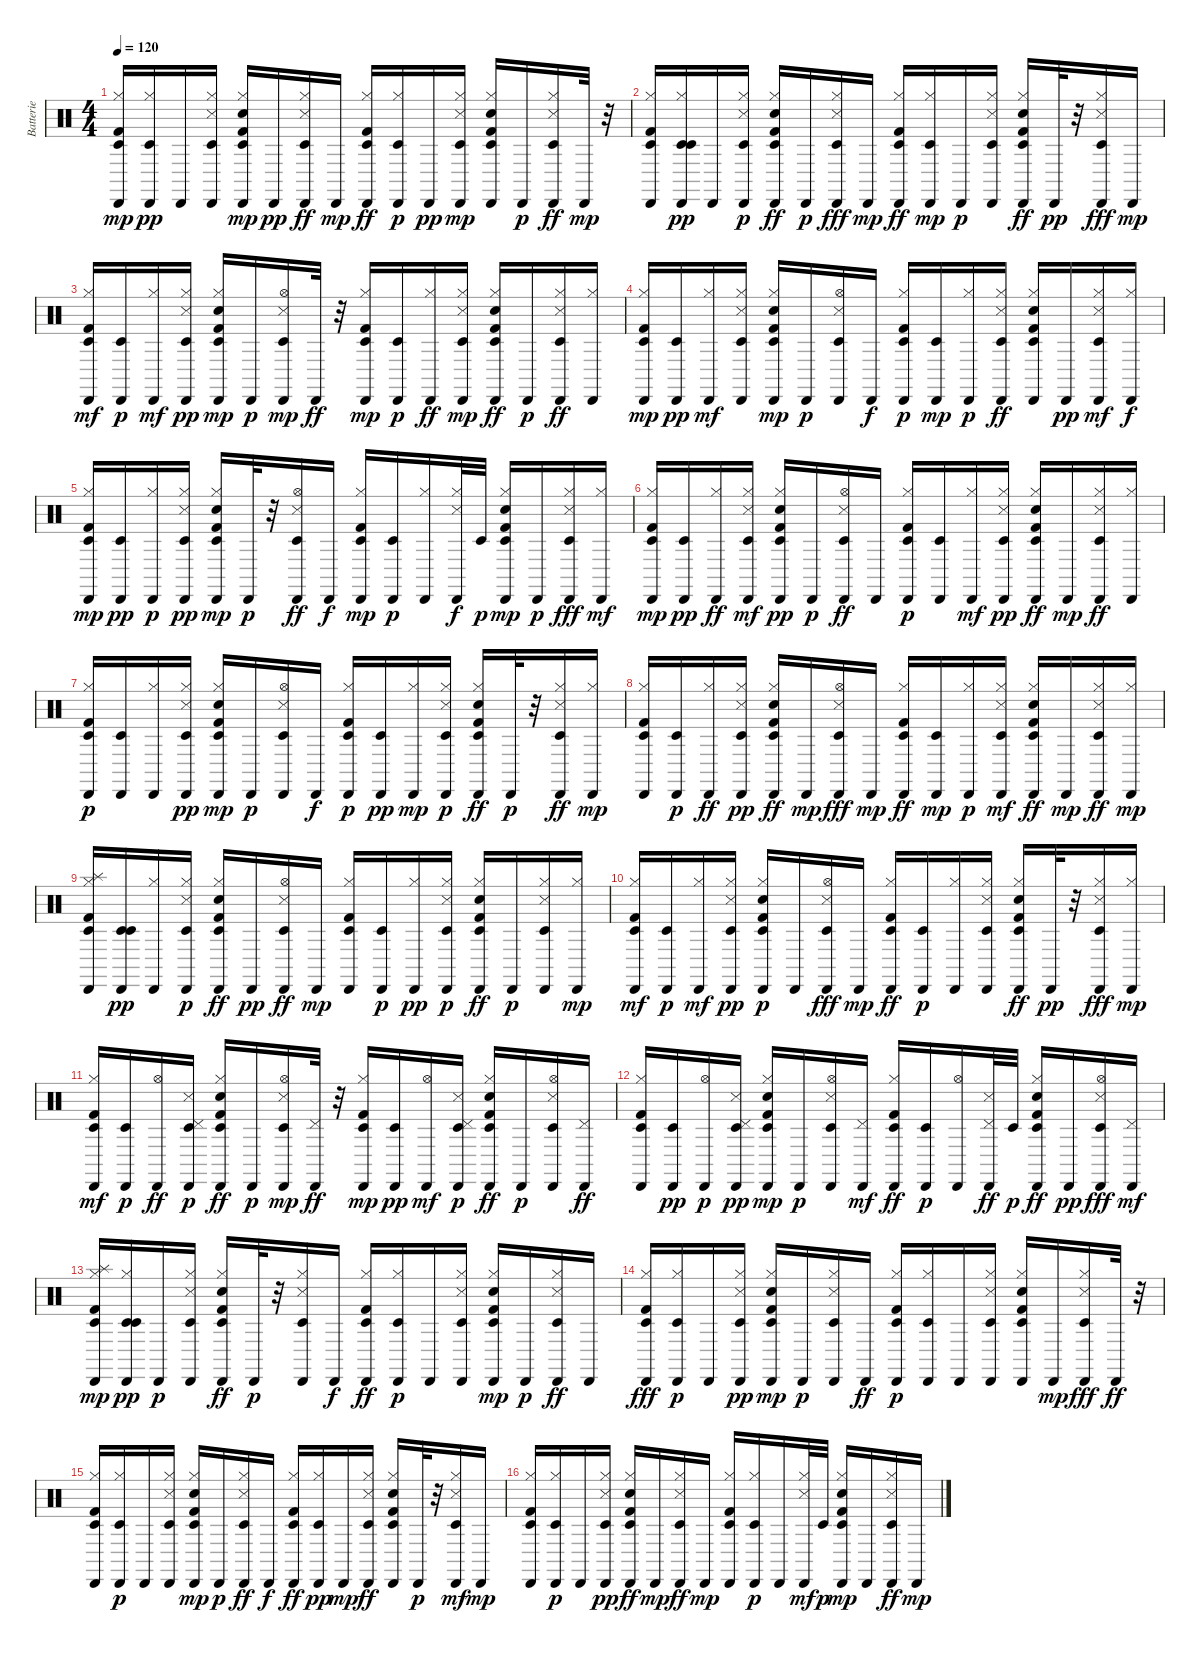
\track ("Batterie" "Batterie") {instrument percussion}
\staff {score}
\articulation defaults
\ts (4 4)
\tempo 120
\clef neutral
\ks c
("Kick (hit) 2" "Cabasa (hit)" "Hi-Hat (closed)" "Timbale low (hit)").16{dy mp} ("Hi-Hat (closed)" "Timbale low (hit)" "Cabasa (hit)").16{dy pp} "Cabasa (hit)".16 ("Snare (side stick) 3" "Cabasa (hit)" "Hi-Hat (closed)" "Timbale low (hit)").16 ("Timbale low (hit)" "Kick (hit) 2" "Hi-Hat (closed)" "Cabasa (hit)" "Hand Clap (hit)").16{dy mp} "Cabasa (hit)".16{dy pp} ("Cabasa (hit)" "Timbale low (hit)" "Snare (side stick) 3" "Hi-Hat (closed)").16{dy ff} "Cabasa (hit)".16{dy mp} ("Timbale low (hit)" "Kick (hit) 2" "Cabasa (hit)" "Hi-Hat (closed)").16{dy ff} ("Hi-Hat (closed)" "Timbale low (hit)" "Cabasa (hit)").16{dy p} "Cabasa (hit)".16{dy pp} ("Snare (side stick) 3" "Timbale low (hit)" "Cabasa (hit)" "Hi-Hat (closed)").16{dy mp} ("Timbale low (hit)" "Kick (hit) 2" "Hand Clap (hit)" "Cabasa (hit)" "Hi-Hat (closed)").16 "Cabasa (hit)".16{dy p} ("Cabasa (hit)" "Hi-Hat (closed)" "Snare (side stick) 3" "Timbale low (hit)").16{dy ff} "Cabasa (hit)".32{dy mp} r.32 |
("Kick (hit) 2" "Cabasa (hit)" "Hi-Hat (closed)" "Timbale low (hit)").16 ("Hi-Hat (closed)" "Cabasa (hit)" "Timbale low (hit)" "Timbale low (hit)").16{dy pp} "Cabasa (hit)".16 ("Cabasa (hit)" "Snare (side stick) 3" "Hi-Hat (closed)" "Timbale low (hit)").16{dy p} ("Timbale low (hit)" "Hi-Hat (closed)" "Kick (hit) 2" "Cabasa (hit)" "Hand Clap (hit)").16{dy ff} "Cabasa (hit)".16{dy p} ("Timbale low (hit)" "Cabasa (hit)" "Hi-Hat (closed)" "Snare (side stick) 3").16{dy fff} "Cabasa (hit)".16{dy mp} ("Timbale low (hit)" "Kick (hit) 2" "Cabasa (hit)" "Hi-Hat (closed)").16{dy ff} ("Hi-Hat (closed)" "Timbale low (hit)" "Cabasa (hit)").16{dy mp} "Cabasa (hit)".16{dy p} ("Hi-Hat (closed)" "Cabasa (hit)" "Snare (side stick) 3" "Timbale low (hit)").16 ("Hi-Hat (closed)" "Timbale low (hit)" "Kick (hit) 2" "Cabasa (hit)" "Hand Clap (hit)").16{dy ff} "Cabasa (hit)".32{dy pp} r.32 ("Cabasa (hit)" "Hi-Hat (closed)" "Timbale low (hit)" "Snare (side stick) 3").16{dy fff} "Cabasa (hit)".16{dy mp} |
("Hi-Hat (closed)" "Kick (hit) 2" "Cabasa (hit)" "Timbale low (hit)").16{dy mf} ("Cabasa (hit)" "Timbale low (hit)").16{dy p} ("Cabasa (hit)" "Hi-Hat (closed)").16{dy mf} ("Cabasa (hit)" "Snare (side stick) 3" "Hi-Hat (closed)" "Timbale low (hit)").16{dy pp} ("Hand Clap (hit)" "Cabasa (hit)" "Kick (hit) 2" "Hi-Hat (closed)" "Timbale low (hit)").16{dy mp} "Cabasa (hit)".16{dy p} ("Cabasa (hit)" "Hi-Hat (open)" "Snare (side stick) 3" "Timbale low (hit)").16{dy mp} "Cabasa (hit)".32{dy ff} r.32 ("Hi-Hat (closed)" "Cabasa (hit)" "Kick (hit) 2" "Timbale low (hit)").16{dy mp} ("Cabasa (hit)" "Timbale low (hit)").16{dy p} ("Cabasa (hit)" "Hi-Hat (closed)").16{dy ff} ("Snare (side stick) 3" "Cabasa (hit)" "Timbale low (hit)" "Hi-Hat (closed)").16{dy mp} ("Timbale low (hit)" "Cabasa (hit)" "Hand Clap (hit)" "Hi-Hat (closed)" "Kick (hit) 2").16{dy ff} "Cabasa (hit)".16{dy p} ("Timbale low (hit)" "Cabasa (hit)" "Snare (side stick) 3" "Hi-Hat (closed)").16{dy ff} ("Cabasa (hit)" "Hi-Hat (closed)").16 |
("Timbale low (hit)" "Cabasa (hit)" "Kick (hit) 2" "Hi-Hat (closed)").16{dy mp} ("Timbale low (hit)" "Cabasa (hit)").16{dy pp} ("Cabasa (hit)" "Hi-Hat (closed)").16{dy mf} ("Cabasa (hit)" "Snare (side stick) 3" "Timbale low (hit)" "Hi-Hat (closed)").16 ("Timbale low (hit)" "Kick (hit) 2" "Cabasa (hit)" "Hand Clap (hit)" "Hi-Hat (closed)").16{dy mp} "Cabasa (hit)".16{dy p} ("Hi-Hat (open)" "Timbale low (hit)" "Cabasa (hit)" "Snare (side stick) 3").16 "Cabasa (hit)".16{dy f} ("Timbale low (hit)" "Kick (hit) 2" "Hi-Hat (closed)" "Cabasa (hit)").16{dy p} ("Timbale low (hit)" "Cabasa (hit)").16{dy mp} ("Hi-Hat (closed)" "Cabasa (hit)").16{dy p} ("Cabasa (hit)" "Timbale low (hit)" "Hi-Hat (closed)" "Snare (side stick) 3").16{dy ff} ("Timbale low (hit)" "Hi-Hat (closed)" "Cabasa (hit)" "Kick (hit) 2" "Hand Clap (hit)").16 "Cabasa (hit)".16{dy pp} ("Cabasa (hit)" "Timbale low (hit)" "Snare (side stick) 3" "Hi-Hat (closed)").16{dy mf} ("Cabasa (hit)" "Hi-Hat (closed)").16{dy f} |
("Kick (hit) 2" "Cabasa (hit)" "Hi-Hat (closed)" "Timbale low (hit)").16{dy mp} ("Timbale low (hit)" "Cabasa (hit)").16{dy pp} ("Cabasa (hit)" "Hi-Hat (closed)").16{dy p} ("Cabasa (hit)" "Snare (side stick) 3" "Hi-Hat (closed)" "Timbale low (hit)").16{dy pp} ("Kick (hit) 2" "Timbale low (hit)" "Cabasa (hit)" "Hi-Hat (closed)" "Hand Clap (hit)").16{dy mp} "Cabasa (hit)".32{dy p} r.32 ("Cabasa (hit)" "Snare (side stick) 3" "Timbale low (hit)" "Hi-Hat (open)").16{dy ff} "Cabasa (hit)".16{dy f} ("Kick (hit) 2" "Cabasa (hit)" "Timbale low (hit)" "Hi-Hat (closed)").16{dy mp} ("Cabasa (hit)" "Timbale low (hit)").16{dy p} ("Hi-Hat (closed)" "Cabasa (hit)").16 ("Hi-Hat (closed)" "Cabasa (hit)" "Snare (side stick) 3").32{dy f} "Timbale low (hit)".32{dy p} ("Hi-Hat (closed)" "Kick (hit) 2" "Hand Clap (hit)" "Timbale low (hit)" "Cabasa (hit)").16{dy mp} "Cabasa (hit)".16{dy p} ("Cabasa (hit)" "Hi-Hat (closed)" "Snare (side stick) 3" "Timbale low (hit)").16{dy fff} ("Cabasa (hit)" "Hi-Hat (closed)").16{dy mf} |
("Cabasa (hit)" "Kick (hit) 2" "Hi-Hat (closed)" "Timbale low (hit)").16{dy mp} ("Cabasa (hit)" "Timbale low (hit)").16{dy pp} ("Cabasa (hit)" "Hi-Hat (closed)").16{dy ff} ("Cabasa (hit)" "Timbale low (hit)" "Snare (side stick) 3" "Hi-Hat (closed)").16{dy mf} ("Timbale low (hit)" "Cabasa (hit)" "Kick (hit) 2" "Hand Clap (hit)" "Hi-Hat (closed)").16{dy pp} "Cabasa (hit)".16{dy p} ("Hi-Hat (open)" "Cabasa (hit)" "Snare (side stick) 3" "Timbale low (hit)").16{dy ff} "Cabasa (hit)".16 ("Timbale low (hit)" "Kick (hit) 2" "Cabasa (hit)" "Hi-Hat (closed)").16{dy p} ("Timbale low (hit)" "Cabasa (hit)").16 ("Cabasa (hit)" "Hi-Hat (closed)").16{dy mf} ("Cabasa (hit)" "Hi-Hat (closed)" "Timbale low (hit)" "Snare (side stick) 3").16{dy pp} ("Timbale low (hit)" "Hi-Hat (closed)" "Cabasa (hit)" "Kick (hit) 2" "Hand Clap (hit)").16{dy ff} "Cabasa (hit)".16{dy mp} ("Cabasa (hit)" "Hi-Hat (closed)" "Timbale low (hit)" "Snare (side stick) 3").16{dy ff} ("Cabasa (hit)" "Hi-Hat (closed)").16 |
("Kick (hit) 2" "Hi-Hat (closed)" "Cabasa (hit)" "Timbale low (hit)").16{dy p} ("Timbale low (hit)" "Cabasa (hit)").16 ("Hi-Hat (closed)" "Cabasa (hit)").16 ("Cabasa (hit)" "Snare (side stick) 3" "Hi-Hat (closed)" "Timbale low (hit)").16{dy pp} ("Timbale low (hit)" "Kick (hit) 2" "Hi-Hat (closed)" "Cabasa (hit)" "Hand Clap (hit)").16{dy mp} "Cabasa (hit)".16{dy p} ("Hi-Hat (open)" "Timbale low (hit)" "Snare (side stick) 3" "Cabasa (hit)").16 "Cabasa (hit)".16{dy f} ("Timbale low (hit)" "Kick (hit) 2" "Cabasa (hit)" "Hi-Hat (closed)").16{dy p} ("Timbale low (hit)" "Cabasa (hit)").16{dy pp} ("Cabasa (hit)" "Hi-Hat (closed)").16{dy mp} ("Cabasa (hit)" "Hi-Hat (closed)" "Snare (side stick) 3" "Timbale low (hit)").16{dy p} ("Timbale low (hit)" "Hi-Hat (closed)" "Kick (hit) 2" "Cabasa (hit)" "Hand Clap (hit)").16{dy ff} "Cabasa (hit)".32{dy p} r.32 ("Cabasa (hit)" "Snare (side stick) 3" "Hi-Hat (closed)" "Timbale low (hit)").16{dy ff} ("Cabasa (hit)" "Hi-Hat (closed)").16{dy mp} |
("Kick (hit) 2" "Hi-Hat (closed)" "Cabasa (hit)" "Timbale low (hit)").16 ("Timbale low (hit)" "Cabasa (hit)").16{dy p} ("Cabasa (hit)" "Hi-Hat (closed)").16{dy ff} ("Cabasa (hit)" "Snare (side stick) 3" "Hi-Hat (closed)" "Timbale low (hit)").16{dy pp} ("Timbale low (hit)" "Hi-Hat (closed)" "Cabasa (hit)" "Kick (hit) 2" "Hand Clap (hit)").16{dy ff} "Cabasa (hit)".16{dy mp} ("Hi-Hat (open)" "Cabasa (hit)" "Timbale low (hit)" "Snare (side stick) 3").16{dy fff} "Cabasa (hit)".16{dy mp} ("Hi-Hat (closed)" "Timbale low (hit)" "Cabasa (hit)" "Kick (hit) 2").16{dy ff} ("Timbale low (hit)" "Cabasa (hit)").16{dy mp} ("Hi-Hat (closed)" "Cabasa (hit)").16{dy p} ("Timbale low (hit)" "Hi-Hat (closed)" "Cabasa (hit)" "Snare (side stick) 3").16{dy mf} ("Hi-Hat (closed)" "Timbale low (hit)" "Kick (hit) 2" "Cabasa (hit)" "Hand Clap (hit)").16{dy ff} "Cabasa (hit)".16{dy mp} ("Hi-Hat (closed)" "Cabasa (hit)" "Timbale low (hit)" "Snare (side stick) 3").16{dy ff} ("Hi-Hat (closed)" "Cabasa (hit)").16{dy mp} |
("Kick (hit) 2" "Hi-Hat (closed)" "Splash (hit)" "Cabasa (hit)" "Timbale low (hit)").16 ("Cabasa (hit)" "Timbale low (hit)" "Timbale low (hit)").16{dy pp} ("Hi-Hat (closed)" "Cabasa (hit)").16 ("Hi-Hat (closed)" "Snare (side stick) 3" "Cabasa (hit)" "Timbale low (hit)").16{dy p} ("Timbale low (hit)" "Hi-Hat (closed)" "Kick (hit) 2" "Cabasa (hit)" "Hand Clap (hit)").16{dy ff} "Cabasa (hit)".16{dy pp} ("Hi-Hat (open)" "Timbale low (hit)" "Cabasa (hit)" "Snare (side stick) 3").16{dy ff} "Cabasa (hit)".16{dy mp} ("Timbale low (hit)" "Kick (hit) 2" "Hi-Hat (closed)" "Cabasa (hit)").16 ("Timbale low (hit)" "Cabasa (hit)").16{dy p} ("Hi-Hat (closed)" "Cabasa (hit)").16{dy pp} ("Hi-Hat (closed)" "Snare (side stick) 3" "Cabasa (hit)" "Timbale low (hit)").16{dy p} ("Hi-Hat (closed)" "Timbale low (hit)" "Kick (hit) 2" "Hand Clap (hit)" "Cabasa (hit)").16{dy ff} "Cabasa (hit)".16{dy p} ("Cabasa (hit)" "Hi-Hat (closed)" "Snare (side stick) 3" "Timbale low (hit)").16 ("Cabasa (hit)" "Hi-Hat (closed)").16{dy mp} |
("Kick (hit) 2" "Cabasa (hit)" "Hi-Hat (closed)" "Timbale low (hit)").16{dy mf} ("Cabasa (hit)" "Timbale low (hit)").16{dy p} ("Cabasa (hit)" "Hi-Hat (closed)").16{dy mf} ("Cabasa (hit)" "Snare (side stick) 3" "Hi-Hat (closed)" "Timbale low (hit)").16{dy pp} ("Kick (hit) 2" "Cabasa (hit)" "Timbale low (hit)" "Hand Clap (hit)" "Hi-Hat (closed)").16{dy p} "Cabasa (hit)".16 ("Cabasa (hit)" "Hi-Hat (open)" "Snare (side stick) 3" "Timbale low (hit)").16{dy fff} "Cabasa (hit)".16{dy mp} ("Hi-Hat (closed)" "Kick (hit) 2" "Timbale low (hit)" "Cabasa (hit)").16{dy ff} ("Cabasa (hit)" "Timbale low (hit)").16{dy p} ("Hi-Hat (closed)" "Cabasa (hit)").16 ("Hi-Hat (closed)" "Cabasa (hit)" "Snare (side stick) 3" "Timbale low (hit)").16 ("Timbale low (hit)" "Hi-Hat (closed)" "Kick (hit) 2" "Cabasa (hit)" "Hand Clap (hit)").16{dy ff} "Cabasa (hit)".32{dy pp} r.32 ("Timbale low (hit)" "Hi-Hat (closed)" "Cabasa (hit)" "Snare (side stick) 3").16{dy fff} ("Hi-Hat (closed)" "Cabasa (hit)").16{dy mp} |
("Timbale low (hit)" "Hi-Hat (closed)" "Kick (hit) 2" "Cabasa (hit)").16{dy mf} ("Timbale low (hit)" "Cabasa (hit)").16{dy p} ("Cabasa (hit)" "Hi-Hat (open)").16{dy ff} ("Cabasa (hit)" "Snare (side stick) 3" "Pedal Hi-Hat (hit)" "Timbale low (hit)").16{dy p} ("Hi-Hat (closed)" "Hand Clap (hit)" "Timbale low (hit)" "Cabasa (hit)" "Kick (hit) 2").16{dy ff} "Cabasa (hit)".16{dy p} ("Cabasa (hit)" "Timbale low (hit)" "Snare (side stick) 3" "Hi-Hat (open)").16{dy mp} ("Pedal Hi-Hat (hit)" "Cabasa (hit)").32{dy ff} r.32 ("Hi-Hat (closed)" "Timbale low (hit)" "Cabasa (hit)" "Kick (hit) 2").16{dy mp} ("Timbale low (hit)" "Cabasa (hit)").16{dy pp} ("Cabasa (hit)" "Hi-Hat (open)").16{dy mf} ("Pedal Hi-Hat (hit)" "Snare (side stick) 3" "Cabasa (hit)" "Timbale low (hit)").16{dy p} ("Timbale low (hit)" "Cabasa (hit)" "Hand Clap (hit)" "Kick (hit) 2" "Hi-Hat (closed)").16{dy ff} "Cabasa (hit)".16{dy p} ("Cabasa (hit)" "Snare (side stick) 3" "Timbale low (hit)" "Hi-Hat (open)").16 ("Pedal Hi-Hat (hit)" "Cabasa (hit)").16{dy ff} |
("Cabasa (hit)" "Kick (hit) 2" "Timbale low (hit)" "Hi-Hat (closed)").16 ("Timbale low (hit)" "Cabasa (hit)").16{dy pp} ("Cabasa (hit)" "Hi-Hat (open)").16{dy p} ("Pedal Hi-Hat (hit)" "Cabasa (hit)" "Snare (side stick) 3" "Timbale low (hit)").16{dy pp} ("Kick (hit) 2" "Timbale low (hit)" "Cabasa (hit)" "Hand Clap (hit)" "Hi-Hat (closed)").16{dy mp} "Cabasa (hit)".16{dy p} ("Hi-Hat (open)" "Cabasa (hit)" "Timbale low (hit)" "Snare (side stick) 3").16 ("Pedal Hi-Hat (hit)" "Cabasa (hit)").16{dy mf} ("Kick (hit) 2" "Cabasa (hit)" "Timbale low (hit)" "Hi-Hat (closed)").16{dy ff} ("Cabasa (hit)" "Timbale low (hit)").16{dy p} ("Hi-Hat (open)" "Cabasa (hit)").16 ("Cabasa (hit)" "Pedal Hi-Hat (hit)" "Snare (side stick) 3").32{dy ff} "Timbale low (hit)".32{dy p} ("Cabasa (hit)" "Kick (hit) 2" "Timbale low (hit)" "Hi-Hat (closed)" "Hand Clap (hit)").16{dy ff} "Cabasa (hit)".16{dy pp} ("Hi-Hat (open)" "Cabasa (hit)" "Snare (side stick) 3" "Timbale low (hit)").16{dy fff} ("Pedal Hi-Hat (hit)" "Cabasa (hit)").16{dy mf} |
("Cabasa (hit)" "Hi-Hat (closed)" "Splash (hit)" "Kick (hit) 2" "Timbale low (hit)").16{dy mp} ("Hi-Hat (closed)" "Cabasa (hit)" "Timbale low (hit)" "Timbale low (hit)").16{dy pp} "Cabasa (hit)".16{dy p} ("Cabasa (hit)" "Snare (side stick) 3" "Hi-Hat (closed)" "Timbale low (hit)").16 ("Timbale low (hit)" "Hand Clap (hit)" "Hi-Hat (closed)" "Cabasa (hit)" "Kick (hit) 2").16{dy ff} "Cabasa (hit)".32{dy p} r.32 ("Timbale low (hit)" "Cabasa (hit)" "Snare (side stick) 3" "Hi-Hat (closed)").16 "Cabasa (hit)".16{dy f} ("Timbale low (hit)" "Kick (hit) 2" "Cabasa (hit)" "Hi-Hat (closed)").16{dy ff} ("Timbale low (hit)" "Hi-Hat (closed)" "Cabasa (hit)").16{dy p} "Cabasa (hit)".16 ("Snare (side stick) 3" "Cabasa (hit)" "Timbale low (hit)" "Hi-Hat (closed)").16 ("Timbale low (hit)" "Hand Clap (hit)" "Kick (hit) 2" "Cabasa (hit)" "Hi-Hat (closed)").16{dy mp} "Cabasa (hit)".16{dy p} ("Snare (side stick) 3" "Cabasa (hit)" "Timbale low (hit)" "Hi-Hat (closed)").16{dy ff} "Cabasa (hit)".16 |
("Cabasa (hit)" "Kick (hit) 2" "Timbale low (hit)" "Hi-Hat (closed)").16{dy fff} ("Hi-Hat (closed)" "Cabasa (hit)" "Timbale low (hit)").16{dy p} "Cabasa (hit)".16 ("Cabasa (hit)" "Snare (side stick) 3" "Hi-Hat (closed)" "Timbale low (hit)").16{dy pp} ("Kick (hit) 2" "Hi-Hat (closed)" "Cabasa (hit)" "Hand Clap (hit)" "Timbale low (hit)").16{dy mp} "Cabasa (hit)".16{dy p} ("Cabasa (hit)" "Hi-Hat (closed)" "Snare (side stick) 3" "Timbale low (hit)").16 "Cabasa (hit)".16{dy ff} ("Kick (hit) 2" "Timbale low (hit)" "Hi-Hat (closed)" "Cabasa (hit)").16{dy p} ("Hi-Hat (closed)" "Cabasa (hit)" "Timbale low (hit)").16 "Cabasa (hit)".16 ("Hi-Hat (closed)" "Cabasa (hit)" "Snare (side stick) 3" "Timbale low (hit)").16 ("Timbale low (hit)" "Hi-Hat (closed)" "Kick (hit) 2" "Cabasa (hit)" "Hand Clap (hit)").16 "Cabasa (hit)".16{dy mp} ("Timbale low (hit)" "Cabasa (hit)" "Hi-Hat (closed)" "Snare (side stick) 3").16{dy fff} "Cabasa (hit)".32{dy ff} r.32 |
("Kick (hit) 2" "Timbale low (hit)" "Cabasa (hit)" "Hi-Hat (closed)").16 ("Hi-Hat (closed)" "Timbale low (hit)" "Cabasa (hit)").16{dy p} "Cabasa (hit)".16 ("Snare (side stick) 3" "Cabasa (hit)" "Timbale low (hit)" "Hi-Hat (closed)").16 ("Timbale low (hit)" "Kick (hit) 2" "Hi-Hat (closed)" "Cabasa (hit)" "Hand Clap (hit)").16{dy mp} "Cabasa (hit)".16{dy p} ("Timbale low (hit)" "Snare (side stick) 3" "Cabasa (hit)" "Hi-Hat (closed)").16{dy ff} "Cabasa (hit)".16{dy f} ("Timbale low (hit)" "Kick (hit) 2" "Cabasa (hit)" "Hi-Hat (closed)").16{dy ff} ("Timbale low (hit)" "Hi-Hat (closed)" "Cabasa (hit)").16{dy pp} "Cabasa (hit)".16{dy mp} ("Timbale low (hit)" "Cabasa (hit)" "Snare (side stick) 3" "Hi-Hat (closed)").16{dy ff} ("Timbale low (hit)" "Hi-Hat (closed)" "Kick (hit) 2" "Hand Clap (hit)" "Cabasa (hit)").16 "Cabasa (hit)".32{dy p} r.32 ("Cabasa (hit)" "Timbale low (hit)" "Snare (side stick) 3" "Hi-Hat (closed)").16{dy mf} "Cabasa (hit)".16{dy mp} |
("Cabasa (hit)" "Kick (hit) 2" "Timbale low (hit)" "Hi-Hat (closed)").16 ("Hi-Hat (closed)" "Timbale low (hit)" "Cabasa (hit)").16{dy p} "Cabasa (hit)".16 ("Cabasa (hit)" "Snare (side stick) 3" "Hi-Hat (closed)" "Timbale low (hit)").16{dy pp} ("Hi-Hat (closed)" "Timbale low (hit)" "Kick (hit) 2" "Cabasa (hit)" "Hand Clap (hit)").16{dy ff} "Cabasa (hit)".16{dy mp} ("Cabasa (hit)" "Timbale low (hit)" "Snare (side stick) 3" "Hi-Hat (closed)").16{dy ff} "Cabasa (hit)".16{dy mp} ("Cabasa (hit)" "Kick (hit) 2" "Timbale low (hit)" "Hi-Hat (closed)").16 ("Cabasa (hit)" "Hi-Hat (closed)" "Timbale low (hit)").16{dy p} "Cabasa (hit)".16 ("Cabasa (hit)" "Snare (side stick) 3" "Hi-Hat (closed)").32{dy mf} "Timbale low (hit)".32{dy p} ("Cabasa (hit)" "Kick (hit) 2" "Timbale low (hit)" "Hi-Hat (closed)" "Hand Clap (hit)").16{dy mp} "Cabasa (hit)".16 ("Cabasa (hit)" "Hi-Hat (closed)" "Snare (side stick) 3" "Timbale low (hit)").16{dy ff} "Cabasa (hit)".16{dy mp}
